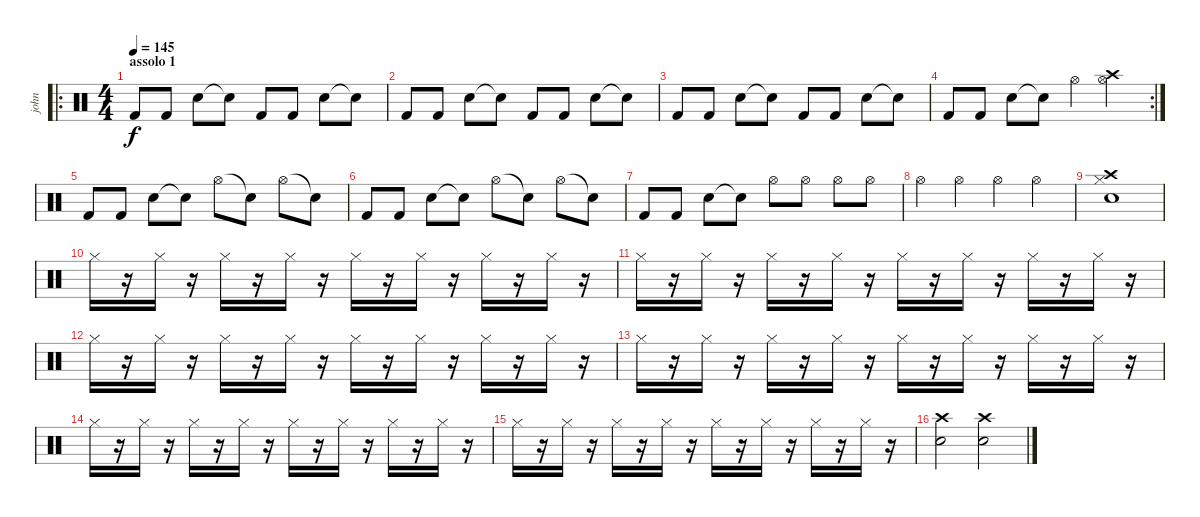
\track ("john" "john") {instrument percussion}
\staff {score}
\articulation defaults
\ro
\ts (4 4)
\section ("" "assolo 1")
\tempo 145
\clef neutral
\ks c "Kick (hit) 2".8{dy f} "Kick (hit) 2".8 "Snare (hit) 2".8 "Snare (hit)"{t}.8 "Kick (hit) 2".8 "Kick (hit) 2".8 "Snare (hit) 2".8 "Snare (hit)"{t}.8
|
"Kick (hit) 2".8 "Kick (hit) 2".8 "Snare (hit) 2".8 "Snare (hit)"{t}.8 "Kick (hit) 2".8 "Kick (hit) 2".8 "Snare (hit) 2".8 "Snare (hit)"{t}.8 |
"Kick (hit) 2".8 "Kick (hit) 2".8 "Snare (hit) 2".8 "Snare (hit)"{t}.8 "Kick (hit) 2".8 "Kick (hit) 2".8 "Snare (hit) 2".8 "Snare (hit)"{t}.8 |
\rc 2 "Kick (hit) 2".8 "Kick (hit) 2".8 "Snare (hit) 2".8 "Snare (hit)"{t}.8 "Hi-Hat (open)".4
("Hi-Hat (open)" "Crash high (hit)").4 |
"Kick (hit) 2".8 "Kick (hit) 2".8 "Snare (hit) 2".8 "Snare (hit)"{t}.8 "Hi-Hat (open)".8 "Snare (hit)"{t}.8 "Hi-Hat (open)".8 "Snare (hit)"{t}.8 |
"Kick (hit) 2".8 "Kick (hit) 2".8 "Snare (hit) 2".8 "Snare (hit)"{t}.8 "Hi-Hat (open)".8 "Snare (hit)"{t}.8 "Hi-Hat (open)".8 "Snare (hit)"{t}.8 |
"Kick (hit) 2".8 "Kick (hit) 2".8 "Snare (hit) 2".8 "Snare (hit)"{t}.8 "Hi-Hat (open)".8 "Hi-Hat (open)".8 "Hi-Hat (open)".8 "Hi-Hat (open)".8 |
"Hi-Hat (open)".4 "Hi-Hat (open)".4 "Hi-Hat (open)".4 "Hi-Hat (open)".4 |
("Snare (hit) 2" "Hi-Hat (closed)" "Crash high (hit)").1 |
"Hi-Hat (closed)".16 r.16 "Hi-Hat (closed)".16 r.16 "Hi-Hat (closed)".16 r.16 "Hi-Hat (closed)".16 r.16 "Hi-Hat (closed)".16 r.16 "Hi-Hat (closed)".16 r.16 "Hi-Hat (closed)".16 r.16 "Hi-Hat (closed)".16 r.16 |
"Hi-Hat (closed)".16 r.16 "Hi-Hat (closed)".16 r.16 "Hi-Hat (closed)".16 r.16 "Hi-Hat (closed)".16 r.16 "Hi-Hat (closed)".16 r.16 "Hi-Hat (closed)".16 r.16 "Hi-Hat (closed)".16 r.16 "Hi-Hat (closed)".16 r.16 |
"Hi-Hat (closed)".16 r.16 "Hi-Hat (closed)".16 r.16 "Hi-Hat (closed)".16 r.16 "Hi-Hat (closed)".16 r.16 "Hi-Hat (closed)".16 r.16 "Hi-Hat (closed)".16 r.16 "Hi-Hat (closed)".16 r.16 "Hi-Hat (closed)".16 r.16 |
"Hi-Hat (closed)".16 r.16 "Hi-Hat (closed)".16 r.16 "Hi-Hat (closed)".16 r.16 "Hi-Hat (closed)".16 r.16 "Hi-Hat (closed)".16 r.16 "Hi-Hat (closed)".16 r.16 "Hi-Hat (closed)".16 r.16 "Hi-Hat (closed)".16 r.16 |
"Hi-Hat (closed)".16 r.16 "Hi-Hat (closed)".16 r.16 "Hi-Hat (closed)".16 r.16 "Hi-Hat (closed)".16 r.16 "Hi-Hat (closed)".16 r.16 "Hi-Hat (closed)".16 r.16 "Hi-Hat (closed)".16 r.16 "Hi-Hat (closed)".16 r.16 |
"Hi-Hat (closed)".16 r.16 "Hi-Hat (closed)".16 r.16 "Hi-Hat (closed)".16 r.16 "Hi-Hat (closed)".16 r.16 "Hi-Hat (closed)".16 r.16 "Hi-Hat (closed)".16 r.16 "Hi-Hat (closed)".16 r.16 "Hi-Hat (closed)".16 r.16 |
("Crash high (hit)" "Snare (hit) 2").2 ("Crash high (hit)" "Snare (hit) 2").2
